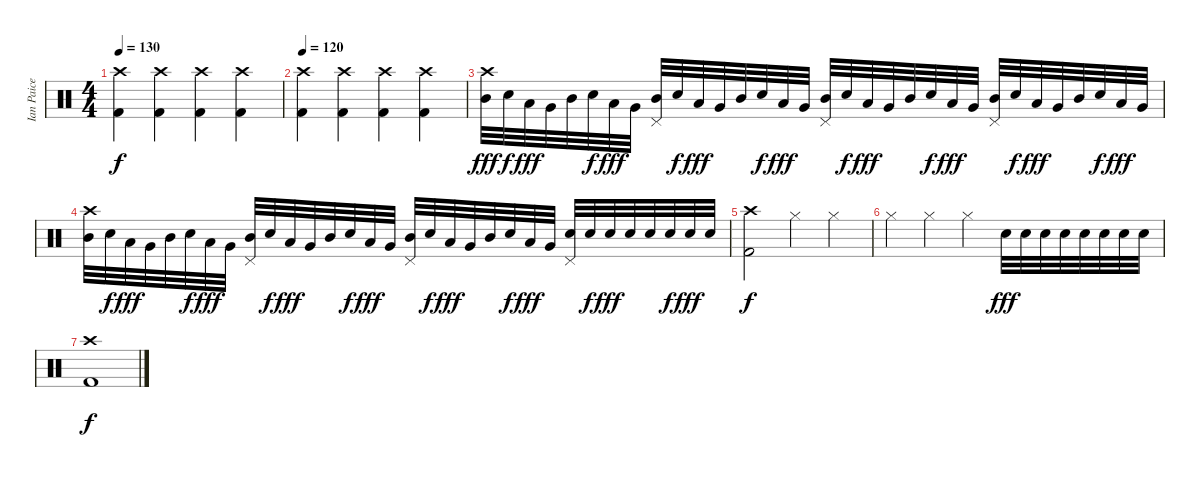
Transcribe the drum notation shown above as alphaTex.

\track ("Ian Paice" "Ian Paice") {instrument percussion}
\staff {score}
\articulation defaults
\ts (4 4)
\tempo 130
\clef neutral
\ks aminor
("Crash high (hit)" "Kick (hit) 2").4{dy f} ("Crash high (hit)" "Kick (hit) 2").4 ("Crash high (hit)" "Kick (hit) 2").4 ("Crash high (hit)" "Kick (hit) 2").4 |
\tempo 120
("Crash high (hit)" "Kick (hit) 2").4 ("Crash high (hit)" "Kick (hit) 2").4 ("Crash high (hit)" "Kick (hit) 2").4 ("Crash high (hit)" "Kick (hit) 2").4 |
\ks c
("Crash high (hit)" "Mid Tom (hit)").32{dy fff} "Snare (hit) 2".32{dy f} "Low Tom (hit)".32{dy fff} "Very Low Tom (hit)".32 "Mid Tom (hit)".32 "Snare (hit) 2".32{dy f} "Low Tom (hit)".32{dy fff} "Very Low Tom (hit)".32 ("Pedal Hi-Hat (hit)" "Mid Tom (hit)").32 "Snare (hit) 2".32{dy f} "Low Tom (hit)".32{dy fff} "Very Low Tom (hit)".32 "Mid Tom (hit)".32 "Snare (hit) 2".32{dy f} "Low Tom (hit)".32{dy fff} "Very Low Tom (hit)".32 ("Pedal Hi-Hat (hit)" "Mid Tom (hit)").32 "Snare (hit) 2".32{dy f} "Low Tom (hit)".32{dy fff} "Very Low Tom (hit)".32 "Mid Tom (hit)".32 "Snare (hit) 2".32{dy f} "Low Tom (hit)".32{dy fff} "Very Low Tom (hit)".32 ("Pedal Hi-Hat (hit)" "Mid Tom (hit)").32 "Snare (hit) 2".32{dy f} "Low Tom (hit)".32{dy fff} "Very Low Tom (hit)".32 "Mid Tom (hit)".32 "Snare (hit) 2".32{dy f} "Low Tom (hit)".32{dy fff} "Very Low Tom (hit)".32 |
("Crash high (hit)" "Mid Tom (hit)").32 "Snare (hit) 2".32{dy f} "Low Tom (hit)".32{dy fff} "Very Low Tom (hit)".32 "Mid Tom (hit)".32 "Snare (hit) 2".32{dy f} "Low Tom (hit)".32{dy fff} "Very Low Tom (hit)".32 ("Pedal Hi-Hat (hit)" "Mid Tom (hit)").32 "Snare (hit) 2".32{dy f} "Low Tom (hit)".32{dy fff} "Very Low Tom (hit)".32 "Mid Tom (hit)".32 "Snare (hit) 2".32{dy f} "Low Tom (hit)".32{dy fff} "Very Low Tom (hit)".32 ("Pedal Hi-Hat (hit)" "Mid Tom (hit)").32 "Snare (hit) 2".32{dy f} "Low Tom (hit)".32{dy fff} "Very Low Tom (hit)".32 "Mid Tom (hit)".32 "Snare (hit) 2".32{dy f} "Low Tom (hit)".32{dy fff} "Very Low Tom (hit)".32 ("Pedal Hi-Hat (hit)" "Snare (hit) 2").32 "Snare (hit) 2".32{dy f} "Snare (hit) 2".32{dy fff} "Snare (hit) 2".32 "Snare (hit) 2".32 "Snare (hit) 2".32{dy f} "Snare (hit) 2".32{dy fff} "Snare (hit) 2".32 |
("Crash high (hit)" "Kick (hit) 2").2{dy f} "Hi-Hat (closed)".4 "Hi-Hat (closed)".4 |
"Hi-Hat (closed)".4 "Hi-Hat (closed)".4 "Hi-Hat (closed)".4 "Snare (hit) 2".32{dy fff} "Snare (hit) 2".32 "Snare (hit) 2".32 "Snare (hit) 2".32 "Snare (hit) 2".32 "Snare (hit) 2".32 "Snare (hit) 2".32 "Snare (hit) 2".32 |
("Crash high (hit)" "Kick (hit) 2").1{dy f}
